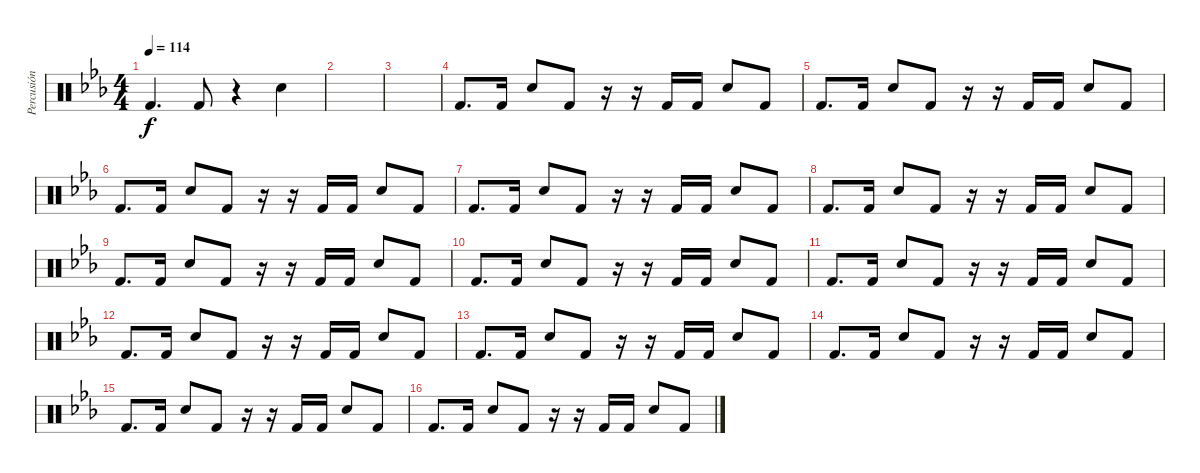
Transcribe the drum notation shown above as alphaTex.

\track ("Percusión" "Percusión") {instrument percussion}
\staff {score}
\articulation defaults
\ts (4 4)
\tempo 114
\clef neutral
\ks eb "Kick (hit) 2".4{d dy f} "Kick (hit) 2".8
r.4 "Electric Snare (hit)".4 |
|
|
"Kick (hit) 2".8{d} "Kick (hit) 2".16 "Electric Snare (hit)".8 "Kick (hit) 2".8 r.16 r.16 "Kick (hit) 2".16 "Kick (hit) 2".16 "Electric Snare (hit)".8 "Kick (hit) 2".8 |
"Kick (hit) 2".8{d} "Kick (hit) 2".16 "Electric Snare (hit)".8 "Kick (hit) 2".8 r.16 r.16 "Kick (hit) 2".16 "Kick (hit) 2".16 "Electric Snare (hit)".8 "Kick (hit) 2".8 |
"Kick (hit) 2".8{d} "Kick (hit) 2".16 "Electric Snare (hit)".8 "Kick (hit) 2".8 r.16 r.16 "Kick (hit) 2".16 "Kick (hit) 2".16 "Electric Snare (hit)".8 "Kick (hit) 2".8 |
"Kick (hit) 2".8{d} "Kick (hit) 2".16 "Electric Snare (hit)".8 "Kick (hit) 2".8 r.16 r.16 "Kick (hit) 2".16 "Kick (hit) 2".16 "Electric Snare (hit)".8 "Kick (hit) 2".8 |
"Kick (hit) 2".8{d} "Kick (hit) 2".16 "Electric Snare (hit)".8 "Kick (hit) 2".8 r.16 r.16 "Kick (hit) 2".16 "Kick (hit) 2".16 "Electric Snare (hit)".8 "Kick (hit) 2".8 |
"Kick (hit) 2".8{d} "Kick (hit) 2".16 "Electric Snare (hit)".8 "Kick (hit) 2".8 r.16 r.16 "Kick (hit) 2".16 "Kick (hit) 2".16 "Electric Snare (hit)".8 "Kick (hit) 2".8 |
"Kick (hit) 2".8{d} "Kick (hit) 2".16 "Electric Snare (hit)".8 "Kick (hit) 2".8 r.16 r.16 "Kick (hit) 2".16 "Kick (hit) 2".16 "Electric Snare (hit)".8 "Kick (hit) 2".8 |
"Kick (hit) 2".8{d} "Kick (hit) 2".16 "Electric Snare (hit)".8 "Kick (hit) 2".8 r.16 r.16 "Kick (hit) 2".16 "Kick (hit) 2".16 "Electric Snare (hit)".8 "Kick (hit) 2".8 |
"Kick (hit) 2".8{d} "Kick (hit) 2".16 "Electric Snare (hit)".8 "Kick (hit) 2".8 r.16 r.16 "Kick (hit) 2".16 "Kick (hit) 2".16 "Electric Snare (hit)".8 "Kick (hit) 2".8 |
"Kick (hit) 2".8{d} "Kick (hit) 2".16 "Electric Snare (hit)".8 "Kick (hit) 2".8 r.16 r.16 "Kick (hit) 2".16 "Kick (hit) 2".16 "Electric Snare (hit)".8 "Kick (hit) 2".8 |
"Kick (hit) 2".8{d} "Kick (hit) 2".16 "Electric Snare (hit)".8 "Kick (hit) 2".8 r.16 r.16 "Kick (hit) 2".16 "Kick (hit) 2".16 "Electric Snare (hit)".8 "Kick (hit) 2".8 |
"Kick (hit) 2".8{d} "Kick (hit) 2".16 "Electric Snare (hit)".8 "Kick (hit) 2".8 r.16 r.16 "Kick (hit) 2".16 "Kick (hit) 2".16 "Electric Snare (hit)".8 "Kick (hit) 2".8 |
"Kick (hit) 2".8{d} "Kick (hit) 2".16 "Electric Snare (hit)".8 "Kick (hit) 2".8 r.16 r.16 "Kick (hit) 2".16 "Kick (hit) 2".16 "Electric Snare (hit)".8 "Kick (hit) 2".8
